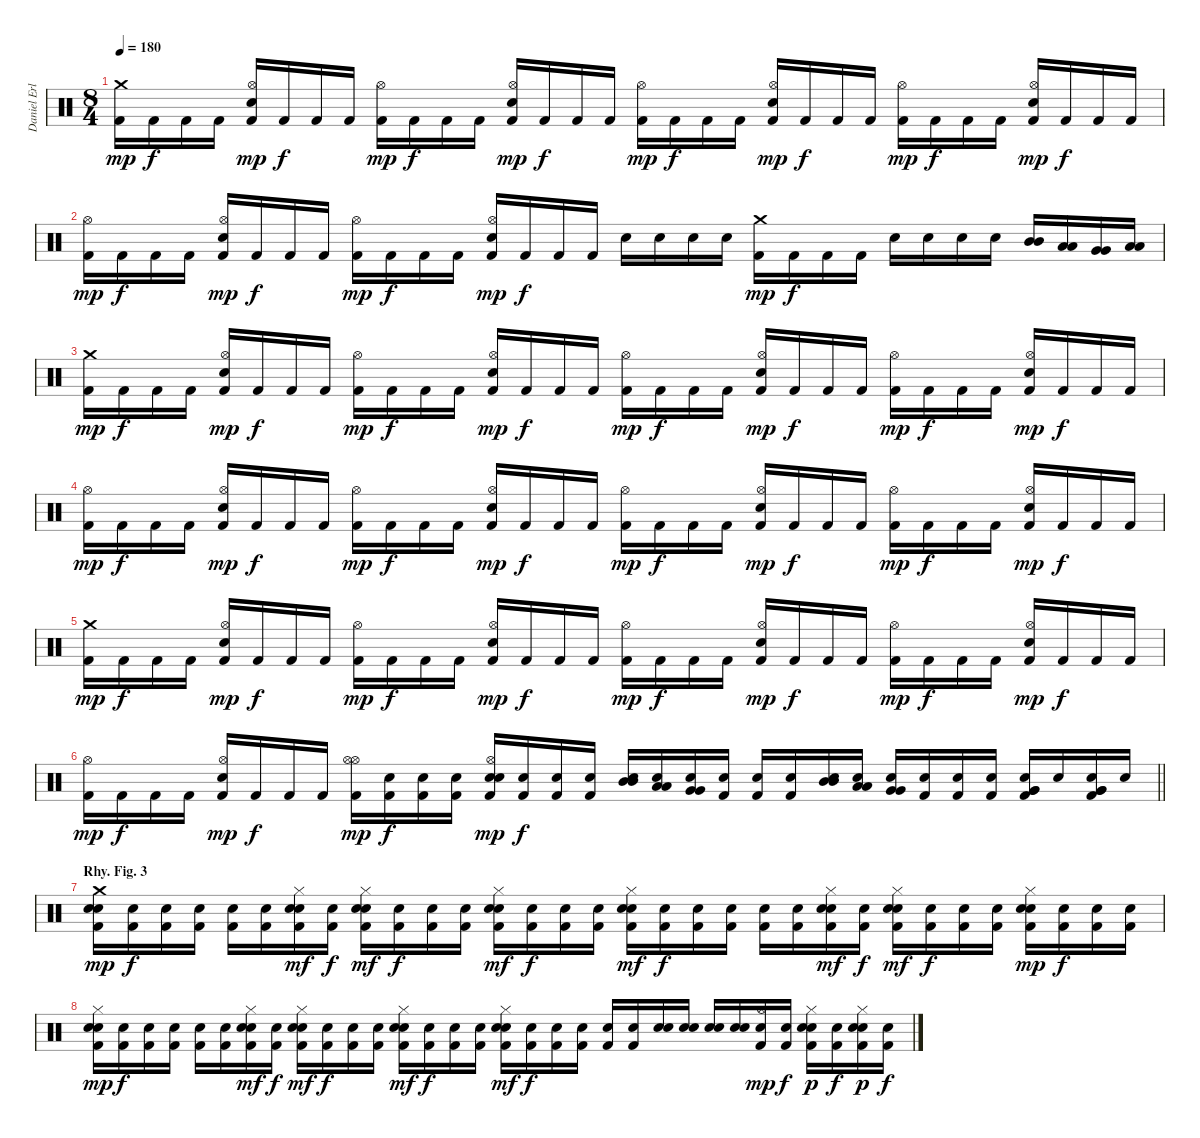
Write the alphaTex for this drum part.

\track ("Daniel Erlandson" "Daniel Erl") {instrument percussion}
\staff {score}
\articulation defaults
\ts (8 4)
\tempo 180
\clef neutral
\ks c
("Crash medium (hit)" "Kick (hit) 2").16{dy mp} "Kick (hit) 2".16{dy f} "Kick (hit) 2".16 "Kick (hit) 2".16 ("Hi-Hat (open)" "Electric Snare (hit)" "Kick (hit) 2").16{dy mp} "Kick (hit) 2".16{dy f} "Kick (hit) 2".16 "Kick (hit) 2".16 ("Hi-Hat (open)" "Kick (hit) 2").16{dy mp} "Kick (hit) 2".16{dy f} "Kick (hit) 2".16 "Kick (hit) 2".16 ("Hi-Hat (open)" "Electric Snare (hit)" "Kick (hit) 2").16{dy mp} "Kick (hit) 2".16{dy f} "Kick (hit) 2".16 "Kick (hit) 2".16 ("Hi-Hat (open)" "Kick (hit) 2").16{dy mp} "Kick (hit) 2".16{dy f} "Kick (hit) 2".16 "Kick (hit) 2".16 ("Hi-Hat (open)" "Electric Snare (hit)" "Kick (hit) 2").16{dy mp} "Kick (hit) 2".16{dy f} "Kick (hit) 2".16 "Kick (hit) 2".16 ("Hi-Hat (open)" "Kick (hit) 2").16{dy mp} "Kick (hit) 2".16{dy f} "Kick (hit) 2".16 "Kick (hit) 2".16 ("Hi-Hat (open)" "Electric Snare (hit)" "Kick (hit) 2").16{dy mp} "Kick (hit) 2".16{dy f} "Kick (hit) 2".16 "Kick (hit) 2".16 |
("Hi-Hat (open)" "Kick (hit) 2").16{dy mp} "Kick (hit) 2".16{dy f} "Kick (hit) 2".16 "Kick (hit) 2".16 ("Hi-Hat (open)" "Electric Snare (hit)" "Kick (hit) 2").16{dy mp} "Kick (hit) 2".16{dy f} "Kick (hit) 2".16 "Kick (hit) 2".16 ("Hi-Hat (open)" "Kick (hit) 2").16{dy mp} "Kick (hit) 2".16{dy f} "Kick (hit) 2".16 "Kick (hit) 2".16 ("Hi-Hat (open)" "Electric Snare (hit)" "Kick (hit) 2").16{dy mp} "Kick (hit) 2".16{dy f} "Kick (hit) 2".16 "Kick (hit) 2".16 "Electric Snare (hit)".16 "Electric Snare (hit)".16 "Electric Snare (hit)".16 "Electric Snare (hit)".16 ("Crash medium (hit)" "Kick (hit) 2").16{dy mp} "Kick (hit) 2".16{dy f} "Kick (hit) 2".16 "Kick (hit) 2".16 "Electric Snare (hit)".16 "Electric Snare (hit)".16 "Electric Snare (hit)".16 "Electric Snare (hit)".16 ("Mid Tom (hit)" "Mid Tom (hit)").16 ("Low Tom (hit)" "Low Tom (hit)").16 ("Very Low Tom (hit)" "Very Low Tom (hit)").16 ("Low Floor Tom (hit)" "Low Floor Tom (hit)").16 |
("Crash medium (hit)" "Kick (hit) 2").16{dy mp} "Kick (hit) 2".16{dy f} "Kick (hit) 2".16 "Kick (hit) 2".16 ("Hi-Hat (open)" "Electric Snare (hit)" "Kick (hit) 2").16{dy mp} "Kick (hit) 2".16{dy f} "Kick (hit) 2".16 "Kick (hit) 2".16 ("Hi-Hat (open)" "Kick (hit) 2").16{dy mp} "Kick (hit) 2".16{dy f} "Kick (hit) 2".16 "Kick (hit) 2".16 ("Hi-Hat (open)" "Electric Snare (hit)" "Kick (hit) 2").16{dy mp} "Kick (hit) 2".16{dy f} "Kick (hit) 2".16 "Kick (hit) 2".16 ("Hi-Hat (open)" "Kick (hit) 2").16{dy mp} "Kick (hit) 2".16{dy f} "Kick (hit) 2".16 "Kick (hit) 2".16 ("Hi-Hat (open)" "Electric Snare (hit)" "Kick (hit) 2").16{dy mp} "Kick (hit) 2".16{dy f} "Kick (hit) 2".16 "Kick (hit) 2".16 ("Hi-Hat (open)" "Kick (hit) 2").16{dy mp} "Kick (hit) 2".16{dy f} "Kick (hit) 2".16 "Kick (hit) 2".16 ("Hi-Hat (open)" "Electric Snare (hit)" "Kick (hit) 2").16{dy mp} "Kick (hit) 2".16{dy f} "Kick (hit) 2".16 "Kick (hit) 2".16 |
("Hi-Hat (open)" "Kick (hit) 2").16{dy mp} "Kick (hit) 2".16{dy f} "Kick (hit) 2".16 "Kick (hit) 2".16 ("Hi-Hat (open)" "Electric Snare (hit)" "Kick (hit) 2").16{dy mp} "Kick (hit) 2".16{dy f} "Kick (hit) 2".16 "Kick (hit) 2".16 ("Hi-Hat (open)" "Kick (hit) 2").16{dy mp} "Kick (hit) 2".16{dy f} "Kick (hit) 2".16 "Kick (hit) 2".16 ("Hi-Hat (open)" "Electric Snare (hit)" "Kick (hit) 2").16{dy mp} "Kick (hit) 2".16{dy f} "Kick (hit) 2".16 "Kick (hit) 2".16 ("Hi-Hat (open)" "Kick (hit) 2").16{dy mp} "Kick (hit) 2".16{dy f} "Kick (hit) 2".16 "Kick (hit) 2".16 ("Hi-Hat (open)" "Electric Snare (hit)" "Kick (hit) 2").16{dy mp} "Kick (hit) 2".16{dy f} "Kick (hit) 2".16 "Kick (hit) 2".16 ("Hi-Hat (open)" "Kick (hit) 2").16{dy mp} "Kick (hit) 2".16{dy f} "Kick (hit) 2".16 "Kick (hit) 2".16 ("Hi-Hat (open)" "Electric Snare (hit)" "Kick (hit) 2").16{dy mp} "Kick (hit) 2".16{dy f} "Kick (hit) 2".16 "Kick (hit) 2".16 |
("Crash medium (hit)" "Kick (hit) 2").16{dy mp} "Kick (hit) 2".16{dy f} "Kick (hit) 2".16 "Kick (hit) 2".16 ("Hi-Hat (open)" "Electric Snare (hit)" "Kick (hit) 2").16{dy mp} "Kick (hit) 2".16{dy f} "Kick (hit) 2".16 "Kick (hit) 2".16 ("Hi-Hat (open)" "Kick (hit) 2").16{dy mp} "Kick (hit) 2".16{dy f} "Kick (hit) 2".16 "Kick (hit) 2".16 ("Hi-Hat (open)" "Electric Snare (hit)" "Kick (hit) 2").16{dy mp} "Kick (hit) 2".16{dy f} "Kick (hit) 2".16 "Kick (hit) 2".16 ("Hi-Hat (open)" "Kick (hit) 2").16{dy mp} "Kick (hit) 2".16{dy f} "Kick (hit) 2".16 "Kick (hit) 2".16 ("Hi-Hat (open)" "Electric Snare (hit)" "Kick (hit) 2").16{dy mp} "Kick (hit) 2".16{dy f} "Kick (hit) 2".16 "Kick (hit) 2".16 ("Hi-Hat (open)" "Kick (hit) 2").16{dy mp} "Kick (hit) 2".16{dy f} "Kick (hit) 2".16 "Kick (hit) 2".16 ("Hi-Hat (open)" "Electric Snare (hit)" "Kick (hit) 2").16{dy mp} "Kick (hit) 2".16{dy f} "Kick (hit) 2".16 "Kick (hit) 2".16 |
\barLineRight lightlight
("Hi-Hat (open)" "Kick (hit) 2").16{dy mp} "Kick (hit) 2".16{dy f} "Kick (hit) 2".16 "Kick (hit) 2".16 ("Hi-Hat (open)" "Electric Snare (hit)" "Kick (hit) 2").16{dy mp} "Kick (hit) 2".16{dy f} "Kick (hit) 2".16 "Kick (hit) 2".16 ("Hi-Hat (open)"{x} "Hi-Hat (open)" "Kick (hit) 2").16{dy mp} ("Snare (hit)"{x} "Kick (hit) 2").16{dy f} ("Snare (hit)"{x} "Kick (hit) 2").16 ("Snare (hit)"{x} "Kick (hit) 2").16 ("Snare (hit)"{x} "Hi-Hat (open)" "Electric Snare (hit)" "Kick (hit) 2").16{dy mp} ("Snare (hit)"{x} "Kick (hit) 2").16{dy f} ("Snare (hit)"{x} "Kick (hit) 2").16 ("Snare (hit)"{x} "Kick (hit) 2").16 ("Snare (hit)"{x} "Mid Tom (hit)" "Mid Tom (hit)").16 ("Snare (hit)"{x} "Low Tom (hit)" "Low Tom (hit)").16 ("Snare (hit)"{x} "Very Low Tom (hit)" "Very Low Tom (hit)").16 ("Snare (hit)"{x} "Kick (hit) 2").16 ("Snare (hit)"{x} "Kick (hit) 2").16 ("Snare (hit)"{x} "Kick (hit) 2").16 ("Snare (hit)"{x} "Mid Tom (hit)" "Mid Tom (hit)").16 ("Snare (hit)"{x} "Low Tom (hit)" "Low Tom (hit)").16 ("Snare (hit)"{x} "Very Low Tom (hit)" "Very Low Tom (hit)").16 ("Snare (hit)"{x} "Kick (hit) 2").16 ("Snare (hit)"{x} "Kick (hit) 2").16 ("Snare (hit)"{x} "Kick (hit) 2").16 ("Snare (hit)"{x} "Very Low Tom (hit)" "Very Low Tom (hit)" "Kick (hit) 2").16 "Snare (hit)"{x}.16 ("Snare (hit)"{x} "Very Low Tom (hit)" "Very Low Tom (hit)" "Kick (hit) 2").16 "Snare (hit)"{x}.16 |
\section ("" "Rhy. Fig. 3")
("Snare (hit)"{x} "Crash medium (hit)" "Electric Snare (hit)" "Kick (hit) 2").16{dy mp} ("Snare (hit)"{x} "Kick (hit) 2").16{dy f} ("Snare (hit)"{x} "Kick (hit) 2").16 ("Snare (hit)"{x} "Kick (hit) 2").16 ("Snare (hit)"{x} "Kick (hit) 2").16 ("Snare (hit)"{x} "Kick (hit) 2").16 ("Snare (hit)"{x} "Hi-Hat (closed)" "Electric Snare (hit)" "Kick (hit) 2").16{dy mf} ("Snare (hit)"{x} "Kick (hit) 2").16{dy f} ("Snare (hit)"{x} "Hi-Hat (closed)" "Electric Snare (hit)" "Kick (hit) 2").16{dy mf} ("Snare (hit)"{x} "Kick (hit) 2").16{dy f} ("Snare (hit)"{x} "Kick (hit) 2").16 ("Snare (hit)"{x} "Kick (hit) 2").16 ("Snare (hit)"{x} "Hi-Hat (closed)" "Electric Snare (hit)" "Kick (hit) 2").16{dy mf} ("Snare (hit)"{x} "Kick (hit) 2").16{dy f} ("Snare (hit)"{x} "Kick (hit) 2").16 ("Snare (hit)"{x} "Kick (hit) 2").16 ("Snare (hit)"{x} "Hi-Hat (closed)" "Electric Snare (hit)" "Kick (hit) 2").16{dy mf} ("Snare (hit)"{x} "Kick (hit) 2").16{dy f} ("Snare (hit)"{x} "Kick (hit) 2").16 ("Snare (hit)"{x} "Kick (hit) 2").16 ("Snare (hit)"{x} "Kick (hit) 2").16 ("Snare (hit)"{x} "Kick (hit) 2").16 ("Snare (hit)"{x} "Hi-Hat (closed)" "Electric Snare (hit)" "Kick (hit) 2").16{dy mf} ("Snare (hit)"{x} "Kick (hit) 2").16{dy f} ("Snare (hit)"{x} "Hi-Hat (closed)" "Electric Snare (hit)" "Kick (hit) 2").16{dy mf} ("Snare (hit)"{x} "Kick (hit) 2").16{dy f} ("Snare (hit)"{x} "Kick (hit) 2").16 ("Snare (hit)"{x} "Kick (hit) 2").16 ("Snare (hit)"{x} "Hi-Hat (closed)" "Electric Snare (hit)" "Kick (hit) 2").16{dy mp} ("Snare (hit)"{x} "Kick (hit) 2").16{dy f} ("Snare (hit)"{x} "Kick (hit) 2").16 ("Snare (hit)"{x} "Kick (hit) 2").16 |
("Snare (hit)"{x} "Hi-Hat (closed)" "Electric Snare (hit)" "Kick (hit) 2").16{dy mp} ("Snare (hit)"{x} "Kick (hit) 2").16{dy f} ("Snare (hit)"{x} "Kick (hit) 2").16 ("Snare (hit)"{x} "Kick (hit) 2").16 ("Snare (hit)"{x} "Kick (hit) 2").16 ("Snare (hit)"{x} "Kick (hit) 2").16 ("Snare (hit)"{x} "Hi-Hat (closed)" "Electric Snare (hit)" "Kick (hit) 2").16{dy mf} ("Snare (hit)"{x} "Kick (hit) 2").16{dy f} ("Snare (hit)"{x} "Hi-Hat (closed)" "Electric Snare (hit)" "Kick (hit) 2").16{dy mf} ("Snare (hit)"{x} "Kick (hit) 2").16{dy f} ("Snare (hit)"{x} "Kick (hit) 2").16 ("Snare (hit)"{x} "Kick (hit) 2").16 ("Snare (hit)"{x} "Hi-Hat (closed)" "Electric Snare (hit)" "Kick (hit) 2").16{dy mf} ("Snare (hit)"{x} "Kick (hit) 2").16{dy f} ("Snare (hit)"{x} "Kick (hit) 2").16 ("Snare (hit)"{x} "Kick (hit) 2").16 ("Snare (hit)"{x} "Hi-Hat (closed)" "Electric Snare (hit)" "Kick (hit) 2").16{dy mf} ("Snare (hit)"{x} "Kick (hit) 2").16{dy f} ("Snare (hit)"{x} "Kick (hit) 2").16 ("Snare (hit)"{x} "Kick (hit) 2").16 ("Snare (hit)"{x} "Kick (hit) 2").16 ("Snare (hit)"{x} "Kick (hit) 2").16 ("Snare (hit)"{x} "Electric Snare (hit)").16 ("Snare (hit)"{x} "Electric Snare (hit)").16 ("Snare (hit)"{x} "Electric Snare (hit)").16 ("Snare (hit)"{x} "Electric Snare (hit)").16 ("Snare (hit)"{x} "Hi-Hat (open)" "Kick (hit) 2").16{dy mp} ("Snare (hit)"{x} "Kick (hit) 2").16{dy f} ("Snare (hit)"{x} "Hi-Hat (closed)" "Electric Snare (hit)" "Kick (hit) 2").16{dy p} ("Snare (hit)"{x} "Kick (hit) 2").16{dy f} ("Snare (hit)"{x} "Hi-Hat (closed)" "Electric Snare (hit)" "Kick (hit) 2").16{dy p} ("Snare (hit)"{x} "Kick (hit) 2").16{dy f}
